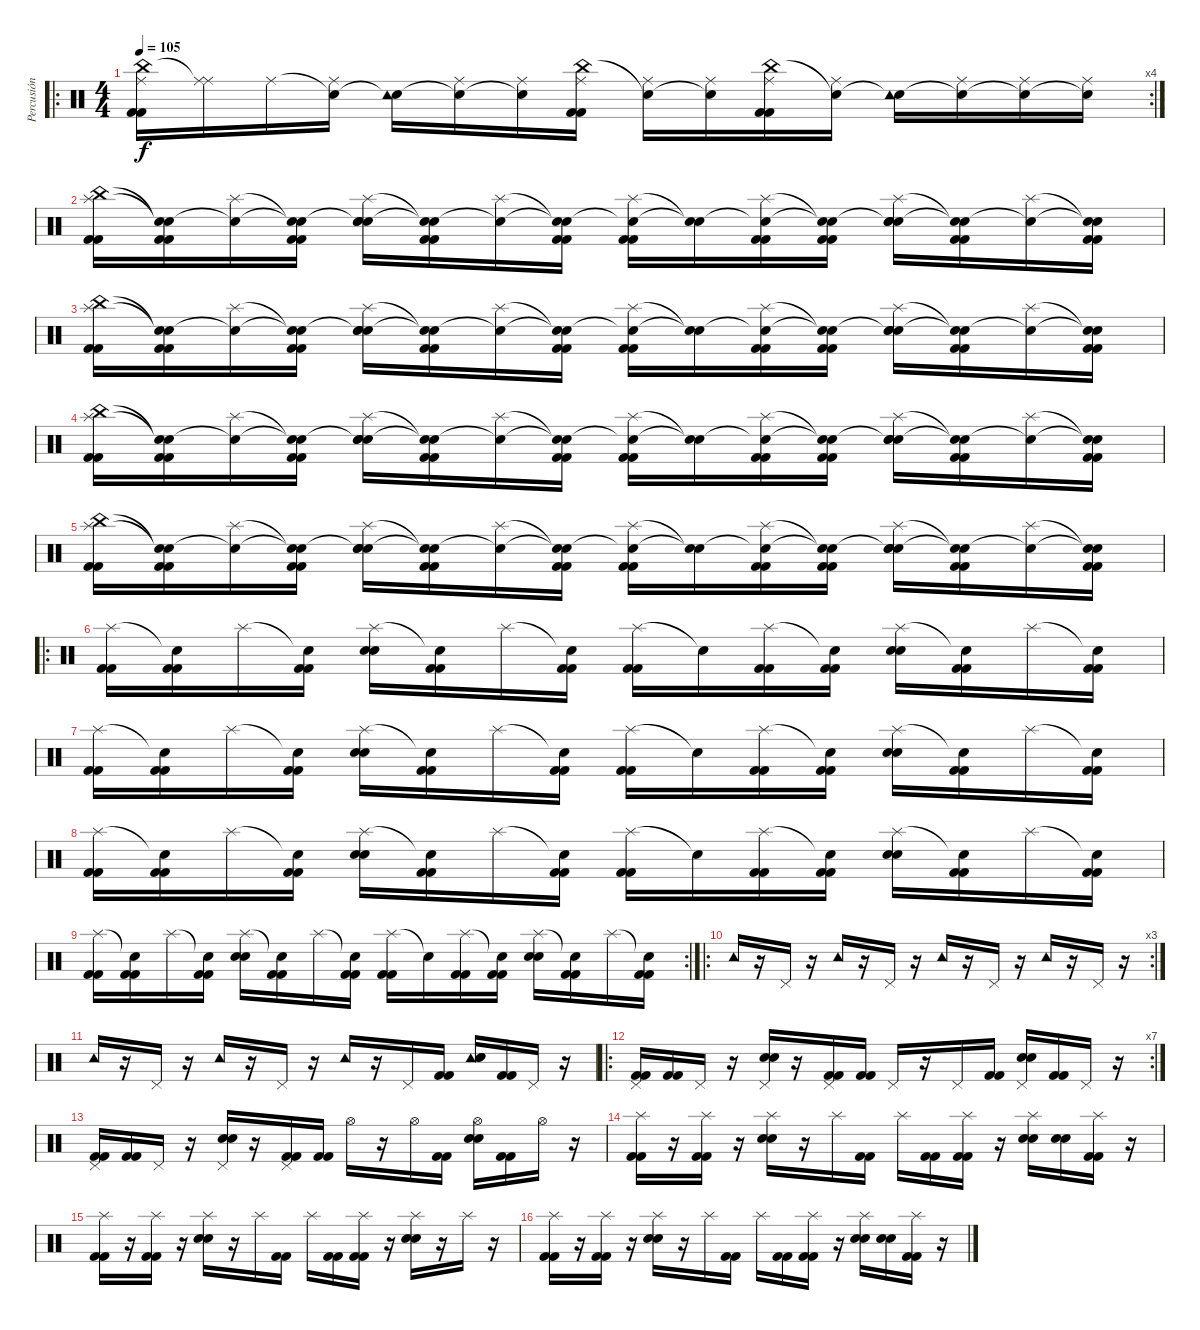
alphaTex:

\track ("Percusión" "Percusión") {instrument percussion}
\staff {score}
\articulation defaults
\ro
\rc 4
\ts (4 4)
\tempo 105
\clef neutral
\ks c
("China (hit)" "Ride (middle)" "Kick (hit) 2" "Kick (hit) 2").16{dy f} ("Ride (middle)"{t} "Ride (middle)").16 "Ride (middle)".16 ("Snare (hit)"{t} "Ride (middle)").16 ("Snare (hit)"{t} "Tambourine (hit)").16 ("Snare (hit)"{t} "Ride (middle)").16 ("Snare (hit)"{t} "Ride (middle)").16 ("China (hit)" "Ride (middle)" "Kick (hit) 2" "Kick (hit) 2").16 ("Snare (hit)"{t} "Ride (middle)").16 ("Snare (hit)"{t} "Ride (middle)").16 ("China (hit)" "Ride (middle)" "Kick (hit) 2" "Kick (hit) 2").16 ("Snare (hit)"{t} "Ride (middle)").16 ("Snare (hit)"{t} "Tambourine (hit)").16 ("Snare (hit)"{t} "Ride (middle)").16 ("Snare (hit)"{t} "Ride (middle)").16 ("Snare (hit)"{t} "Ride (middle)").16 |
("Splash (hit)" "China (hit)" "Kick (hit) 2" "Kick (hit) 2").16 ("Snare (hit)"{t} "Snare (hit)"{t} "Kick (hit) 2" "Kick (hit) 2").16 ("Splash (hit)" "Snare (hit)"{t}).16 ("Snare (hit)"{t} "Snare (hit)"{t} "Kick (hit) 2" "Kick (hit) 2").16 ("Splash (hit)" "Snare (hit)"{t} "Electric Snare (hit)" "Electric Snare (hit)").16 ("Snare (hit)"{t} "Snare (hit)"{t} "Kick (hit) 2" "Kick (hit) 2").16 ("Splash (hit)" "Snare (hit)"{t}).16 ("Snare (hit)"{t} "Snare (hit)"{t} "Kick (hit) 2" "Kick (hit) 2").16 ("Splash (hit)" "Snare (hit)"{t} "Kick (hit) 2" "Kick (hit) 2").16 ("Snare (hit)"{t} "Snare (hit)"{t}).16 ("Splash (hit)" "Snare (hit)"{t} "Kick (hit) 2" "Kick (hit) 2").16 ("Snare (hit)"{t} "Snare (hit)"{t} "Kick (hit) 2" "Kick (hit) 2").16 ("Splash (hit)" "Snare (hit)"{t} "Electric Snare (hit)" "Electric Snare (hit)").16 ("Snare (hit)"{t} "Snare (hit)"{t} "Kick (hit) 2" "Kick (hit) 2").16 ("Splash (hit)" "Snare (hit)"{t}).16 ("Snare (hit)"{t} "Snare (hit)"{t} "Kick (hit) 2" "Kick (hit) 2").16 |
("Splash (hit)" "China (hit)" "Kick (hit) 2" "Kick (hit) 2").16 ("Snare (hit)"{t} "Snare (hit)"{t} "Kick (hit) 2" "Kick (hit) 2").16 ("Splash (hit)" "Snare (hit)"{t}).16 ("Snare (hit)"{t} "Snare (hit)"{t} "Kick (hit) 2" "Kick (hit) 2").16 ("Splash (hit)" "Snare (hit)"{t} "Electric Snare (hit)" "Electric Snare (hit)").16 ("Snare (hit)"{t} "Snare (hit)"{t} "Kick (hit) 2" "Kick (hit) 2").16 ("Splash (hit)" "Snare (hit)"{t}).16 ("Snare (hit)"{t} "Snare (hit)"{t} "Kick (hit) 2" "Kick (hit) 2").16 ("Splash (hit)" "Snare (hit)"{t} "Kick (hit) 2" "Kick (hit) 2").16 ("Snare (hit)"{t} "Snare (hit)"{t}).16 ("Splash (hit)" "Snare (hit)"{t} "Kick (hit) 2" "Kick (hit) 2").16 ("Snare (hit)"{t} "Snare (hit)"{t} "Kick (hit) 2" "Kick (hit) 2").16 ("Splash (hit)" "Snare (hit)"{t} "Electric Snare (hit)" "Electric Snare (hit)").16 ("Snare (hit)"{t} "Snare (hit)"{t} "Kick (hit) 2" "Kick (hit) 2").16 ("Splash (hit)" "Snare (hit)"{t}).16 ("Snare (hit)"{t} "Snare (hit)"{t} "Kick (hit) 2" "Kick (hit) 2").16 |
("Splash (hit)" "China (hit)" "Kick (hit) 2" "Kick (hit) 2").16 ("Snare (hit)"{t} "Snare (hit)"{t} "Kick (hit) 2" "Kick (hit) 2").16 ("Splash (hit)" "Snare (hit)"{t}).16 ("Snare (hit)"{t} "Snare (hit)"{t} "Kick (hit) 2" "Kick (hit) 2").16 ("Splash (hit)" "Snare (hit)"{t} "Electric Snare (hit)" "Electric Snare (hit)").16 ("Snare (hit)"{t} "Snare (hit)"{t} "Kick (hit) 2" "Kick (hit) 2").16 ("Splash (hit)" "Snare (hit)"{t}).16 ("Snare (hit)"{t} "Snare (hit)"{t} "Kick (hit) 2" "Kick (hit) 2").16 ("Splash (hit)" "Snare (hit)"{t} "Kick (hit) 2" "Kick (hit) 2").16 ("Snare (hit)"{t} "Snare (hit)"{t}).16 ("Splash (hit)" "Snare (hit)"{t} "Kick (hit) 2" "Kick (hit) 2").16 ("Snare (hit)"{t} "Snare (hit)"{t} "Kick (hit) 2" "Kick (hit) 2").16 ("Splash (hit)" "Snare (hit)"{t} "Electric Snare (hit)" "Electric Snare (hit)").16 ("Snare (hit)"{t} "Snare (hit)"{t} "Kick (hit) 2" "Kick (hit) 2").16 ("Splash (hit)" "Snare (hit)"{t}).16 ("Snare (hit)"{t} "Snare (hit)"{t} "Kick (hit) 2" "Kick (hit) 2").16 |
("Splash (hit)" "China (hit)" "Kick (hit) 2" "Kick (hit) 2").16 ("Snare (hit)"{t} "Snare (hit)"{t} "Kick (hit) 2" "Kick (hit) 2").16 ("Splash (hit)" "Snare (hit)"{t}).16 ("Snare (hit)"{t} "Snare (hit)"{t} "Kick (hit) 2" "Kick (hit) 2").16 ("Splash (hit)" "Snare (hit)"{t} "Electric Snare (hit)" "Electric Snare (hit)").16 ("Snare (hit)"{t} "Snare (hit)"{t} "Kick (hit) 2" "Kick (hit) 2").16 ("Splash (hit)" "Snare (hit)"{t}).16 ("Snare (hit)"{t} "Snare (hit)"{t} "Kick (hit) 2" "Kick (hit) 2").16 ("Splash (hit)" "Snare (hit)"{t} "Kick (hit) 2" "Kick (hit) 2").16 ("Snare (hit)"{t} "Snare (hit)"{t}).16 ("Splash (hit)" "Snare (hit)"{t} "Kick (hit) 2" "Kick (hit) 2").16 ("Snare (hit)"{t} "Snare (hit)"{t} "Kick (hit) 2" "Kick (hit) 2").16 ("Splash (hit)" "Snare (hit)"{t} "Electric Snare (hit)" "Electric Snare (hit)").16 ("Snare (hit)"{t} "Snare (hit)"{t} "Kick (hit) 2" "Kick (hit) 2").16 ("Splash (hit)" "Snare (hit)"{t}).16 ("Snare (hit)"{t} "Snare (hit)"{t} "Kick (hit) 2" "Kick (hit) 2").16 |
\ro
("Splash (hit)" "Kick (hit) 2" "Kick (hit) 2").16 ("Snare (hit)"{t} "Kick (hit) 2" "Kick (hit) 2").16 "Splash (hit)".16 ("Snare (hit)"{t} "Kick (hit) 2" "Kick (hit) 2").16 ("Splash (hit)" "Electric Snare (hit)" "Electric Snare (hit)").16 ("Snare (hit)"{t} "Kick (hit) 2" "Kick (hit) 2").16 "Splash (hit)".16 ("Snare (hit)"{t} "Kick (hit) 2" "Kick (hit) 2").16 ("Splash (hit)" "Kick (hit) 2" "Kick (hit) 2").16 "Snare (hit)"{t}.16 ("Splash (hit)" "Kick (hit) 2" "Kick (hit) 2").16 ("Snare (hit)"{t} "Kick (hit) 2" "Kick (hit) 2").16 ("Splash (hit)" "Electric Snare (hit)" "Electric Snare (hit)").16 ("Snare (hit)"{t} "Kick (hit) 2" "Kick (hit) 2").16 "Splash (hit)".16 ("Snare (hit)"{t} "Kick (hit) 2" "Kick (hit) 2").16 |
("Splash (hit)" "Kick (hit) 2" "Kick (hit) 2").16 ("Snare (hit)"{t} "Kick (hit) 2" "Kick (hit) 2").16 "Splash (hit)".16 ("Snare (hit)"{t} "Kick (hit) 2" "Kick (hit) 2").16 ("Splash (hit)" "Electric Snare (hit)" "Electric Snare (hit)").16 ("Snare (hit)"{t} "Kick (hit) 2" "Kick (hit) 2").16 "Splash (hit)".16 ("Snare (hit)"{t} "Kick (hit) 2" "Kick (hit) 2").16 ("Splash (hit)" "Kick (hit) 2" "Kick (hit) 2").16 "Snare (hit)"{t}.16 ("Splash (hit)" "Kick (hit) 2" "Kick (hit) 2").16 ("Snare (hit)"{t} "Kick (hit) 2" "Kick (hit) 2").16 ("Splash (hit)" "Electric Snare (hit)" "Electric Snare (hit)").16 ("Snare (hit)"{t} "Kick (hit) 2" "Kick (hit) 2").16 "Splash (hit)".16 ("Snare (hit)"{t} "Kick (hit) 2" "Kick (hit) 2").16 |
("Splash (hit)" "Kick (hit) 2" "Kick (hit) 2").16 ("Snare (hit)"{t} "Kick (hit) 2" "Kick (hit) 2").16 "Splash (hit)".16 ("Snare (hit)"{t} "Kick (hit) 2" "Kick (hit) 2").16 ("Splash (hit)" "Electric Snare (hit)" "Electric Snare (hit)").16 ("Snare (hit)"{t} "Kick (hit) 2" "Kick (hit) 2").16 "Splash (hit)".16 ("Snare (hit)"{t} "Kick (hit) 2" "Kick (hit) 2").16 ("Splash (hit)" "Kick (hit) 2" "Kick (hit) 2").16 "Snare (hit)"{t}.16 ("Splash (hit)" "Kick (hit) 2" "Kick (hit) 2").16 ("Snare (hit)"{t} "Kick (hit) 2" "Kick (hit) 2").16 ("Splash (hit)" "Electric Snare (hit)" "Electric Snare (hit)").16 ("Snare (hit)"{t} "Kick (hit) 2" "Kick (hit) 2").16 "Splash (hit)".16 ("Snare (hit)"{t} "Kick (hit) 2" "Kick (hit) 2").16 |
\rc 2
("Splash (hit)" "Kick (hit) 2" "Kick (hit) 2").16 ("Snare (hit)"{t} "Kick (hit) 2" "Kick (hit) 2").16 "Splash (hit)".16 ("Snare (hit)"{t} "Kick (hit) 2" "Kick (hit) 2").16 ("Splash (hit)" "Electric Snare (hit)" "Electric Snare (hit)").16 ("Snare (hit)"{t} "Kick (hit) 2" "Kick (hit) 2").16 "Splash (hit)".16 ("Snare (hit)"{t} "Kick (hit) 2" "Kick (hit) 2").16 ("Splash (hit)" "Kick (hit) 2" "Kick (hit) 2").16 "Snare (hit)"{t}.16 ("Splash (hit)" "Kick (hit) 2" "Kick (hit) 2").16 ("Snare (hit)"{t} "Kick (hit) 2" "Kick (hit) 2").16 ("Splash (hit)" "Electric Snare (hit)" "Electric Snare (hit)").16 ("Snare (hit)"{t} "Kick (hit) 2" "Kick (hit) 2").16 "Splash (hit)".16 ("Snare (hit)"{t} "Kick (hit) 2" "Kick (hit) 2").16 |
\ro
\rc 3 "Tambourine (hit)".16
r.16 "Pedal Hi-Hat (hit)".16 r.16 "Tambourine (hit)".16 r.16 "Pedal Hi-Hat (hit)".16 r.16 "Tambourine (hit)".16 r.16 "Pedal Hi-Hat (hit)".16 r.16 "Tambourine (hit)".16 r.16 "Pedal Hi-Hat (hit)".16 r.16 |
"Tambourine (hit)".16 r.16 "Pedal Hi-Hat (hit)".16 r.16 "Tambourine (hit)".16 r.16 "Pedal Hi-Hat (hit)".16 r.16 "Tambourine (hit)".16 r.16 "Pedal Hi-Hat (hit)".16 ("Kick (hit) 2" "Kick (hit) 2").16 ("Tambourine (hit)" "Electric Snare (hit)" "Electric Snare (hit)").16 ("Kick (hit) 2" "Kick (hit) 2").16 "Pedal Hi-Hat (hit)".16 r.16 |
\ro
\rc 7
("Pedal Hi-Hat (hit)" "Kick (hit) 2" "Kick (hit) 2").16 ("Kick (hit) 2" "Kick (hit) 2").16 "Pedal Hi-Hat (hit)".16 r.16 ("Pedal Hi-Hat (hit)" "Electric Snare (hit)" "Electric Snare (hit)").16 r.16 ("Pedal Hi-Hat (hit)" "Kick (hit) 2" "Kick (hit) 2").16 ("Kick (hit) 2" "Kick (hit) 2").16 "Pedal Hi-Hat (hit)".16 r.16 "Pedal Hi-Hat (hit)".16 ("Kick (hit) 2" "Kick (hit) 2").16 ("Pedal Hi-Hat (hit)" "Electric Snare (hit)" "Electric Snare (hit)").16 ("Kick (hit) 2" "Kick (hit) 2").16 "Pedal Hi-Hat (hit)".16 r.16 |
("Pedal Hi-Hat (hit)" "Kick (hit) 2" "Kick (hit) 2").16 ("Kick (hit) 2" "Kick (hit) 2").16 "Pedal Hi-Hat (hit)".16 r.16 ("Pedal Hi-Hat (hit)" "Electric Snare (hit)" "Electric Snare (hit)").16 r.16 ("Pedal Hi-Hat (hit)" "Kick (hit) 2" "Kick (hit) 2").16 ("Kick (hit) 2" "Kick (hit) 2").16 "Hi-Hat (open)".16 r.16 "Hi-Hat (open)".16 ("Kick (hit) 2" "Kick (hit) 2").16 ("Hi-Hat (open)" "Electric Snare (hit)" "Electric Snare (hit)").16 ("Kick (hit) 2" "Kick (hit) 2").16 "Hi-Hat (open)".16 r.16 |
("Splash (hit)" "Kick (hit) 2" "Kick (hit) 2").16 r.16 ("Splash (hit)" "Kick (hit) 2" "Kick (hit) 2").16 r.16 ("Splash (hit)" "Electric Snare (hit)" "Electric Snare (hit)").16 r.16 "Splash (hit)".16 ("Kick (hit) 2" "Kick (hit) 2").16 "Splash (hit)".16 ("Kick (hit) 2" "Kick (hit) 2").16 ("Splash (hit)" "Kick (hit) 2" "Kick (hit) 2").16 r.16 ("Splash (hit)" "Electric Snare (hit)" "Electric Snare (hit)").16 ("Electric Snare (hit)" "Electric Snare (hit)").16 ("Splash (hit)" "Kick (hit) 2" "Kick (hit) 2").16 r.16 |
("Splash (hit)" "Kick (hit) 2" "Kick (hit) 2").16 r.16 ("Splash (hit)" "Kick (hit) 2" "Kick (hit) 2").16 r.16 ("Splash (hit)" "Electric Snare (hit)" "Electric Snare (hit)").16 r.16 "Splash (hit)".16 ("Kick (hit) 2" "Kick (hit) 2").16 "Splash (hit)".16 ("Kick (hit) 2" "Kick (hit) 2").16 ("Splash (hit)" "Kick (hit) 2" "Kick (hit) 2").16 r.16 ("Splash (hit)" "Electric Snare (hit)" "Electric Snare (hit)").16 r.16 "Splash (hit)".16 r.16 |
("Splash (hit)" "Kick (hit) 2" "Kick (hit) 2").16 r.16 ("Splash (hit)" "Kick (hit) 2" "Kick (hit) 2").16 r.16 ("Splash (hit)" "Electric Snare (hit)" "Electric Snare (hit)").16 r.16 "Splash (hit)".16 ("Kick (hit) 2" "Kick (hit) 2").16 "Splash (hit)".16 ("Kick (hit) 2" "Kick (hit) 2").16 ("Splash (hit)" "Kick (hit) 2" "Kick (hit) 2").16 r.16 ("Splash (hit)" "Electric Snare (hit)" "Electric Snare (hit)").16 ("Electric Snare (hit)" "Electric Snare (hit)").16 ("Splash (hit)" "Kick (hit) 2" "Kick (hit) 2").16 r.16
